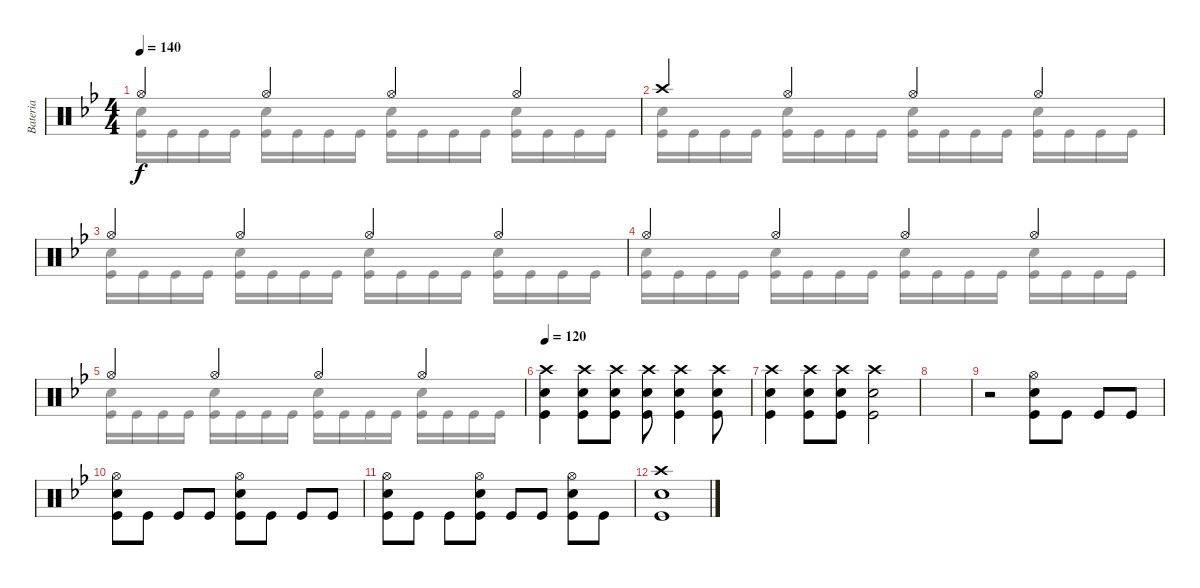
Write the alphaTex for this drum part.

\track ("Bateria" "Bateria") {instrument percussion}
\staff {score}
\articulation defaults
\voice
\ts (4 4)
\tempo 140
\clef neutral
\ks gminor "Hi-Hat (open)".4{dy f} "Hi-Hat (open)".4 "Hi-Hat (open)".4 "Hi-Hat (open)".4
|
"Crash high (hit)".4 "Hi-Hat (open)".4 "Hi-Hat (open)".4 "Hi-Hat (open)".4 |
"Hi-Hat (open)".4 "Hi-Hat (open)".4 "Hi-Hat (open)".4 "Hi-Hat (open)".4 |
"Hi-Hat (open)".4 "Hi-Hat (open)".4 "Hi-Hat (open)".4 "Hi-Hat (open)".4 |
"Hi-Hat (open)".4 "Hi-Hat (open)".4 "Hi-Hat (open)".4 "Hi-Hat (open)".4 |
\tempo 120
("Crash high (hit)" "Snare (hit) 2" "Kick (hit)").4 ("Crash high (hit)" "Snare (hit) 2" "Kick (hit)").8 ("Crash high (hit)" "Snare (hit) 2" "Kick (hit)").8 ("Crash high (hit)" "Snare (hit) 2" "Kick (hit)").8 ("Crash high (hit)" "Snare (hit) 2" "Kick (hit)").4 ("Crash high (hit)" "Snare (hit) 2" "Kick (hit)").8 |
("Crash high (hit)" "Snare (hit) 2" "Kick (hit)").4 ("Crash high (hit)" "Snare (hit) 2" "Kick (hit)").8 ("Crash high (hit)" "Snare (hit) 2" "Kick (hit)").8 ("Crash high (hit)" "Snare (hit) 2" "Kick (hit)").2 |
|
r.2 ("Hi-Hat (open)" "Snare (hit) 2" "Kick (hit)").8 "Kick (hit)".8 "Kick (hit)".8 "Kick (hit)".8 |
("Hi-Hat (open)" "Snare (hit) 2" "Kick (hit)").8 "Kick (hit)".8 "Kick (hit)".8 "Kick (hit)".8 ("Hi-Hat (open)" "Snare (hit) 2" "Kick (hit)").8 "Kick (hit)".8 "Kick (hit)".8 "Kick (hit)".8 |
("Hi-Hat (open)" "Snare (hit) 2" "Kick (hit)").8 "Kick (hit)".8 "Kick (hit)".8 ("Hi-Hat (open)" "Snare (hit) 2" "Kick (hit)").8 "Kick (hit)".8 "Kick (hit)".8 ("Hi-Hat (open)" "Snare (hit) 2" "Kick (hit)").8 "Kick (hit)".8 |
("Crash high (hit)" "Snare (hit) 2" "Kick (hit)").1
\voice
\clef neutral
\ottava regular
\simile none
\ks gminor
("Snare (hit) 2" "Kick (hit)").16{dy f} "Kick (hit)".16 "Kick (hit)".16 "Kick (hit)".16 ("Snare (hit) 2" "Kick (hit)").16 "Kick (hit)".16 "Kick (hit)".16 "Kick (hit)".16 ("Snare (hit) 2" "Kick (hit)").16 "Kick (hit)".16 "Kick (hit)".16 "Kick (hit)".16 ("Snare (hit) 2" "Kick (hit)").16 "Kick (hit)".16 "Kick (hit)".16 "Kick (hit)".16 |
("Snare (hit) 2" "Kick (hit)").16 "Kick (hit)".16 "Kick (hit)".16 "Kick (hit)".16 ("Snare (hit) 2" "Kick (hit)").16 "Kick (hit)".16 "Kick (hit)".16 "Kick (hit)".16 ("Snare (hit) 2" "Kick (hit)").16 "Kick (hit)".16 "Kick (hit)".16 "Kick (hit)".16 ("Snare (hit) 2" "Kick (hit)").16 "Kick (hit)".16 "Kick (hit)".16 "Kick (hit)".16 |
("Snare (hit) 2" "Kick (hit)").16 "Kick (hit)".16 "Kick (hit)".16 "Kick (hit)".16 ("Snare (hit) 2" "Kick (hit)").16 "Kick (hit)".16 "Kick (hit)".16 "Kick (hit)".16 ("Snare (hit) 2" "Kick (hit)").16 "Kick (hit)".16 "Kick (hit)".16 "Kick (hit)".16 ("Snare (hit) 2" "Kick (hit)").16 "Kick (hit)".16 "Kick (hit)".16 "Kick (hit)".16 |
("Snare (hit) 2" "Kick (hit)").16 "Kick (hit)".16 "Kick (hit)".16 "Kick (hit)".16 ("Snare (hit) 2" "Kick (hit)").16 "Kick (hit)".16 "Kick (hit)".16 "Kick (hit)".16 ("Snare (hit) 2" "Kick (hit)").16 "Kick (hit)".16 "Kick (hit)".16 "Kick (hit)".16 ("Snare (hit) 2" "Kick (hit)").16 "Kick (hit)".16 "Kick (hit)".16 "Kick (hit)".16 |
("Snare (hit) 2" "Kick (hit)").16 "Kick (hit)".16 "Kick (hit)".16 "Kick (hit)".16 ("Snare (hit) 2" "Kick (hit)").16 "Kick (hit)".16 "Kick (hit)".16 "Kick (hit)".16 ("Snare (hit) 2" "Kick (hit)").16 "Kick (hit)".16 "Kick (hit)".16 "Kick (hit)".16 ("Snare (hit) 2" "Kick (hit)").16 "Kick (hit)".16 "Kick (hit)".16 "Kick (hit)".16 |
|
|
|
|
|
|
